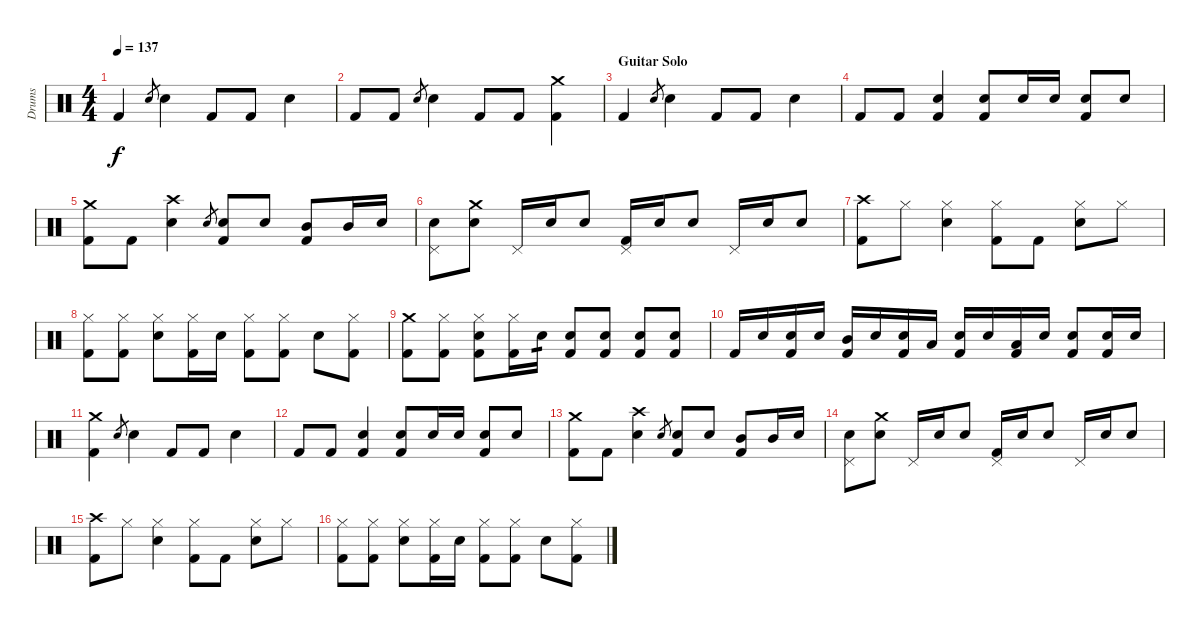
\track ("Drums" "Drums") {instrument percussion}
\staff {score}
\articulation defaults
\ts (4 4)
\tempo 137
\clef neutral
\ks c "Kick (hit) 2".4{dy f} "Snare (hit) 2".8{gr} "Snare (hit) 2".4 "Kick (hit) 2".8 "Kick (hit) 2".8 "Snare (hit) 2".4
|
"Kick (hit) 2".8 "Kick (hit) 2".8 "Snare (hit) 2".8{gr} "Snare (hit) 2".4 "Kick (hit) 2".8 "Kick (hit) 2".8 ("Crash medium (hit)" "Kick (hit) 2").4 |
\section ("" "Guitar Solo")
"Kick (hit) 2".4 "Snare (hit) 2".8{gr} "Snare (hit) 2".4 "Kick (hit) 2".8 "Kick (hit) 2".8 "Snare (hit) 2".4 |
"Kick (hit) 2".8 "Kick (hit) 2".8 ("Snare (hit) 2" "Kick (hit) 2").4 ("Snare (hit) 2" "Kick (hit) 2").8 "Snare (hit) 2".16 "Snare (hit) 2".16 ("Snare (hit) 2" "Kick (hit) 2").8 "Snare (hit) 2".8 |
("Crash medium (hit)" "Kick (hit) 2").8 "Kick (hit) 2".8 ("Crash high (hit)" "Snare (hit) 2").4 "Snare (hit) 2".8{gr} ("Snare (hit) 2" "Kick (hit) 2").8 "Snare (hit) 2".8 ("Mid Tom (hit)" "Kick (hit) 2").8 "Mid Tom (hit)".16 "Snare (hit) 2".16 |
("Snare (hit) 2" "Pedal Hi-Hat (hit)").8 ("Crash medium (hit)" "Snare (hit) 2").8 "Pedal Hi-Hat (hit)".16 "Snare (hit) 2".16 "Snare (hit) 2".8 ("Pedal Hi-Hat (hit)" "Kick (hit) 2").16 "Snare (hit) 2".16 "Snare (hit) 2".8 "Pedal Hi-Hat (hit)".16 "Snare (hit) 2".16 "Snare (hit) 2".8 |
("Crash high (hit)" "Kick (hit) 2").8 "Hi-Hat (closed)".8 ("Hi-Hat (closed)" "Snare (hit) 2").4 ("Hi-Hat (closed)" "Kick (hit) 2").8 "Kick (hit) 2".8 ("Hi-Hat (closed)" "Snare (hit) 2").8 "Hi-Hat (closed)".8 |
("Hi-Hat (closed)" "Kick (hit) 2").8 ("Hi-Hat (closed)" "Kick (hit) 2").8 ("Hi-Hat (closed)" "Snare (hit) 2").8 ("Hi-Hat (closed)" "Kick (hit) 2").16 "Snare (hit) 2".16 ("Hi-Hat (closed)" "Kick (hit) 2").8 ("Hi-Hat (closed)" "Kick (hit) 2").8 "Snare (hit) 2".8 ("Hi-Hat (closed)" "Kick (hit) 2").8 |
("Crash medium (hit)" "Kick (hit) 2").8 ("Hi-Hat (closed)" "Kick (hit) 2").8 ("Hi-Hat (closed)" "Snare (hit) 2" "Kick (hit) 2").8 ("Hi-Hat (closed)" "Kick (hit) 2").16 "Snare (hit) 2".16{tp 1} ("Snare (hit) 2" "Kick (hit) 2").8 ("Snare (hit) 2" "Kick (hit) 2").8 ("Snare (hit) 2" "Kick (hit) 2").8 ("Snare (hit) 2" "Kick (hit) 2").8 |
"Kick (hit) 2".16 "Snare (hit) 2".16 ("Snare (hit) 2" "Kick (hit) 2").16 "Snare (hit) 2".16 ("Mid Tom (hit)" "Kick (hit) 2").16 "Snare (hit) 2".16 ("Snare (hit) 2" "Kick (hit) 2").16 "Low Tom (hit)".16 ("Snare (hit) 2" "Kick (hit) 2").16 "Snare (hit) 2".16 ("Low Tom (hit)" "Kick (hit) 2").16 "Snare (hit) 2".16 ("Snare (hit) 2" "Kick (hit) 2").8 ("Snare (hit) 2" "Kick (hit) 2").16 "Snare (hit) 2".16 |
("Crash medium (hit)" "Kick (hit) 2").4 "Snare (hit) 2".8{gr} "Snare (hit) 2".4 "Kick (hit) 2".8 "Kick (hit) 2".8 "Snare (hit) 2".4 |
"Kick (hit) 2".8 "Kick (hit) 2".8 ("Snare (hit) 2" "Kick (hit) 2").4 ("Snare (hit) 2" "Kick (hit) 2").8 "Snare (hit) 2".16 "Snare (hit) 2".16 ("Snare (hit) 2" "Kick (hit) 2").8 "Snare (hit) 2".8 |
("Crash medium (hit)" "Kick (hit) 2").8 "Kick (hit) 2".8 ("Crash high (hit)" "Snare (hit) 2").4 "Snare (hit) 2".8{gr} ("Snare (hit) 2" "Kick (hit) 2").8 "Snare (hit) 2".8 ("Mid Tom (hit)" "Kick (hit) 2").8 "Mid Tom (hit)".16 "Snare (hit) 2".16 |
("Snare (hit) 2" "Pedal Hi-Hat (hit)").8 ("Crash medium (hit)" "Snare (hit) 2").8 "Pedal Hi-Hat (hit)".16 "Snare (hit) 2".16 "Snare (hit) 2".8 ("Pedal Hi-Hat (hit)" "Kick (hit) 2").16 "Snare (hit) 2".16 "Snare (hit) 2".8 "Pedal Hi-Hat (hit)".16 "Snare (hit) 2".16 "Snare (hit) 2".8 |
("Crash high (hit)" "Kick (hit) 2").8 "Hi-Hat (closed)".8 ("Hi-Hat (closed)" "Snare (hit) 2").4 ("Hi-Hat (closed)" "Kick (hit) 2").8 "Kick (hit) 2".8 ("Hi-Hat (closed)" "Snare (hit) 2").8 "Hi-Hat (closed)".8 |
("Hi-Hat (closed)" "Kick (hit) 2").8 ("Hi-Hat (closed)" "Kick (hit) 2").8 ("Hi-Hat (closed)" "Snare (hit) 2").8 ("Hi-Hat (closed)" "Kick (hit) 2").16 "Snare (hit) 2".16 ("Hi-Hat (closed)" "Kick (hit) 2").8 ("Hi-Hat (closed)" "Kick (hit) 2").8 "Snare (hit) 2".8 ("Hi-Hat (closed)" "Kick (hit) 2").8
